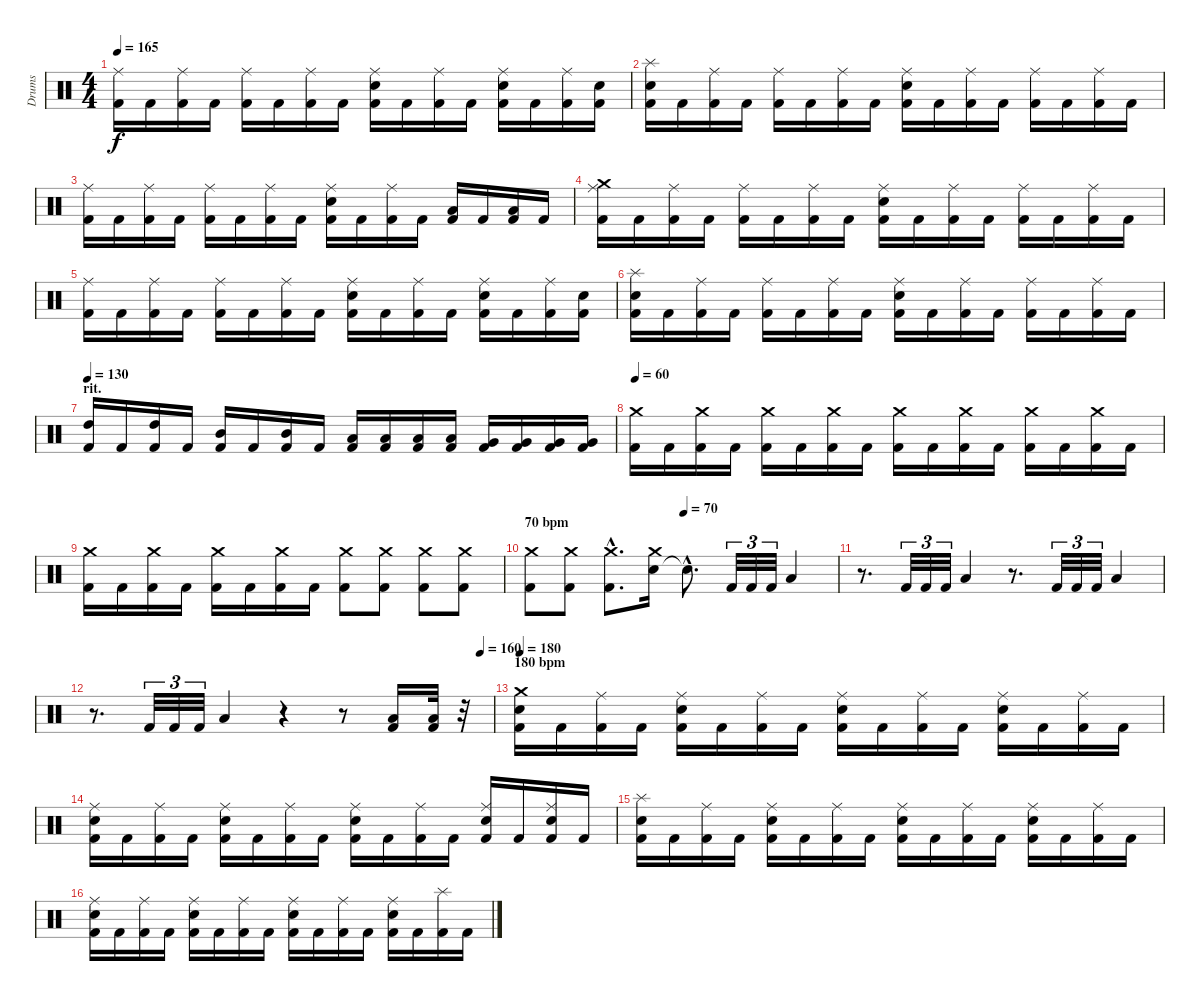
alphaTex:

\track ("Drums" "Drums") {instrument percussion}
\staff {score}
\articulation defaults
\ts (4 4)
\tempo 165
\clef neutral
\ks c
("Kick (hit) 2" "Ride (middle)").16{dy f} "Kick (hit) 2".16 ("Kick (hit) 2" "Ride (middle)").16 "Kick (hit) 2".16 ("Kick (hit) 2" "Ride (middle)").16 "Kick (hit) 2".16 ("Kick (hit) 2" "Ride (middle)").16 "Kick (hit) 2".16 ("Kick (hit) 2" "Electric Snare (hit)" "Ride (middle)").16 "Kick (hit) 2".16 ("Kick (hit) 2" "Ride (middle)").16 "Kick (hit) 2".16 ("Kick (hit) 2" "Electric Snare (hit)" "Ride (middle)").16 "Kick (hit) 2".16 ("Kick (hit) 2" "Ride (middle)").16 ("Kick (hit) 2" "Electric Snare (hit)").16 |
("Kick (hit) 2" "Electric Snare (hit)" "Splash (hit)").16 "Kick (hit) 2".16 ("Kick (hit) 2" "Ride (middle)").16 "Kick (hit) 2".16 ("Kick (hit) 2" "Ride (middle)").16 "Kick (hit) 2".16 ("Kick (hit) 2" "Ride (middle)").16 "Kick (hit) 2".16 ("Kick (hit) 2" "Electric Snare (hit)" "Ride (middle)").16 "Kick (hit) 2".16 ("Kick (hit) 2" "Ride (middle)").16 "Kick (hit) 2".16 ("Kick (hit) 2" "Ride (middle)").16 "Kick (hit) 2".16 ("Kick (hit) 2" "Ride (middle)").16 "Kick (hit) 2".16 |
("Kick (hit) 2" "Ride (middle)").16 "Kick (hit) 2".16 ("Kick (hit) 2" "Ride (middle)").16 "Kick (hit) 2".16 ("Kick (hit) 2" "Ride (middle)").16 "Kick (hit) 2".16 ("Kick (hit) 2" "Ride (middle)").16 "Kick (hit) 2".16 ("Kick (hit) 2" "Electric Snare (hit)" "Ride (middle)").16 "Kick (hit) 2".16 ("Kick (hit) 2" "Ride (middle)").16 "Kick (hit) 2".16 ("Kick (hit) 2" "Low Tom (hit)").16 "Kick (hit) 2".16 ("Kick (hit) 2" "Low Tom (hit)").16 "Kick (hit) 2".16 |
("Kick (hit) 2" "Ride (middle)" "Crash medium (hit)").16 "Kick (hit) 2".16 ("Kick (hit) 2" "Ride (middle)").16 "Kick (hit) 2".16 ("Kick (hit) 2" "Ride (middle)").16 "Kick (hit) 2".16 ("Kick (hit) 2" "Ride (middle)").16 "Kick (hit) 2".16 ("Kick (hit) 2" "Electric Snare (hit)" "Ride (middle)").16 "Kick (hit) 2".16 ("Kick (hit) 2" "Ride (middle)").16 "Kick (hit) 2".16 ("Kick (hit) 2" "Ride (middle)").16 "Kick (hit) 2".16 ("Kick (hit) 2" "Ride (middle)").16 "Kick (hit) 2".16 |
("Kick (hit) 2" "Ride (middle)").16 "Kick (hit) 2".16 ("Kick (hit) 2" "Ride (middle)").16 "Kick (hit) 2".16 ("Kick (hit) 2" "Ride (middle)").16 "Kick (hit) 2".16 ("Kick (hit) 2" "Ride (middle)").16 "Kick (hit) 2".16 ("Kick (hit) 2" "Electric Snare (hit)" "Ride (middle)").16 "Kick (hit) 2".16 ("Kick (hit) 2" "Ride (middle)").16 "Kick (hit) 2".16 ("Kick (hit) 2" "Electric Snare (hit)" "Ride (middle)").16 "Kick (hit) 2".16 ("Kick (hit) 2" "Ride (middle)").16 ("Kick (hit) 2" "Electric Snare (hit)").16 |
("Kick (hit) 2" "Electric Snare (hit)" "Splash (hit)").16 "Kick (hit) 2".16 ("Kick (hit) 2" "Ride (middle)").16 "Kick (hit) 2".16 ("Kick (hit) 2" "Ride (middle)").16 "Kick (hit) 2".16 ("Kick (hit) 2" "Ride (middle)").16 "Kick (hit) 2".16 ("Kick (hit) 2" "Electric Snare (hit)" "Ride (middle)").16 "Kick (hit) 2".16 ("Kick (hit) 2" "Ride (middle)").16 "Kick (hit) 2".16 ("Kick (hit) 2" "Ride (middle)").16 "Kick (hit) 2".16 ("Kick (hit) 2" "Ride (middle)").16 "Kick (hit) 2".16 |
\section ("" "rit.")
\tempo 130
("Kick (hit) 2" "High Tom (hit)").16 "Kick (hit) 2".16 ("Kick (hit) 2" "High Tom (hit)").16 "Kick (hit) 2".16 ("Kick (hit) 2" "Mid Tom (hit)").16 "Kick (hit) 2".16 ("Kick (hit) 2" "Mid Tom (hit)").16 "Kick (hit) 2".16 ("Kick (hit) 2" "Low Tom (hit)").16 ("Kick (hit) 2" "Low Tom (hit)").16 ("Kick (hit) 2" "Low Tom (hit)").16 ("Kick (hit) 2" "Low Tom (hit)").16 ("Kick (hit) 2" "Very Low Tom (hit)").16 ("Kick (hit) 2" "Very Low Tom (hit)").16 ("Kick (hit) 2" "Very Low Tom (hit)").16 ("Kick (hit) 2" "Very Low Tom (hit)").16 |
\tempo 60
("Kick (hit) 2" "Crash medium (hit)").16 "Kick (hit) 2".16 ("Kick (hit) 2" "Crash medium (hit)").16 "Kick (hit) 2".16 ("Kick (hit) 2" "Crash medium (hit)").16 "Kick (hit) 2".16 ("Kick (hit) 2" "Crash medium (hit)").16 "Kick (hit) 2".16 ("Kick (hit) 2" "Crash medium (hit)").16 "Kick (hit) 2".16 ("Kick (hit) 2" "Crash medium (hit)").16 "Kick (hit) 2".16 ("Kick (hit) 2" "Crash medium (hit)").16 "Kick (hit) 2".16 ("Kick (hit) 2" "Crash medium (hit)").16 "Kick (hit) 2".16 |
("Kick (hit) 2" "Crash medium (hit)").16 "Kick (hit) 2".16 ("Kick (hit) 2" "Crash medium (hit)").16 "Kick (hit) 2".16 ("Kick (hit) 2" "Crash medium (hit)").16 "Kick (hit) 2".16 ("Kick (hit) 2" "Crash medium (hit)").16 "Kick (hit) 2".16 ("Kick (hit) 2" "Crash medium (hit)").8 ("Kick (hit) 2" "Crash medium (hit)").8 ("Kick (hit) 2" "Crash medium (hit)").8 ("Kick (hit) 2" "Crash medium (hit)").8 |
\section ("" "70 bpm")
\tempo (70 0.5)
("Kick (hit) 2" "Crash medium (hit)").8 ("Kick (hit) 2" "Crash medium (hit)").8 ("Kick (hit) 2"{hac} "Crash medium (hit)"{hac}).8{d} ("Electric Snare (hit)" "Crash medium (hit)").16 "Snare (hit)"{hac t}.8{d} "Kick (hit) 2".32{tu (3 2)} "Kick (hit) 2".32{tu (3 2)} "Kick (hit) 2".32{tu (3 2)} "Low Tom (hit)".4 |
r.8{d} "Kick (hit) 2".32{tu (3 2)} "Kick (hit) 2".32{tu (3 2)} "Kick (hit) 2".32{tu (3 2)} "Low Tom (hit)".4 r.8{d} "Kick (hit) 2".32{tu (3 2)} "Kick (hit) 2".32{tu (3 2)} "Kick (hit) 2".32{tu (3 2)} "Low Tom (hit)".4 |
\tempo (160 0.96875)
r.8{d} "Kick (hit) 2".32{tu (3 2)} "Kick (hit) 2".32{tu (3 2)} "Kick (hit) 2".32{tu (3 2)} "Low Tom (hit)".4 r.4 r.8 ("Kick (hit) 2" "Low Tom (hit)").16 ("Kick (hit) 2" "Low Tom (hit)").32 r.32 |
\section ("" "180 bpm")
\tempo 180
("Kick (hit) 2" "Electric Snare (hit)" "Crash medium (hit)").16 "Kick (hit) 2".16 ("Kick (hit) 2" "Ride (middle)").16 "Kick (hit) 2".16 ("Kick (hit) 2" "Electric Snare (hit)" "Ride (middle)").16 "Kick (hit) 2".16 ("Kick (hit) 2" "Ride (middle)").16 "Kick (hit) 2".16 ("Kick (hit) 2" "Electric Snare (hit)" "Ride (middle)").16 "Kick (hit) 2".16 ("Kick (hit) 2" "Ride (middle)").16 "Kick (hit) 2".16 ("Kick (hit) 2" "Electric Snare (hit)" "Ride (middle)").16 "Kick (hit) 2".16 ("Kick (hit) 2" "Ride (middle)").16 "Kick (hit) 2".16 |
("Kick (hit) 2" "Electric Snare (hit)" "Ride (middle)").16 "Kick (hit) 2".16 ("Kick (hit) 2" "Ride (middle)").16 "Kick (hit) 2".16 ("Kick (hit) 2" "Electric Snare (hit)" "Ride (middle)").16 "Kick (hit) 2".16 ("Kick (hit) 2" "Ride (middle)").16 "Kick (hit) 2".16 ("Kick (hit) 2" "Electric Snare (hit)" "Ride (middle)").16 "Kick (hit) 2".16 ("Kick (hit) 2" "Ride (middle)").16 "Kick (hit) 2".16 ("Kick (hit) 2" "Electric Snare (hit)" "Ride (middle)").16 "Kick (hit) 2".16 ("Kick (hit) 2" "Electric Snare (hit)" "Ride (middle)").16 "Kick (hit) 2".16 |
("Kick (hit) 2" "Electric Snare (hit)" "Splash (hit)").16 "Kick (hit) 2".16 ("Kick (hit) 2" "Ride (middle)").16 "Kick (hit) 2".16 ("Kick (hit) 2" "Electric Snare (hit)" "Ride (middle)").16 "Kick (hit) 2".16 ("Kick (hit) 2" "Ride (middle)").16 "Kick (hit) 2".16 ("Kick (hit) 2" "Electric Snare (hit)" "Ride (middle)").16 "Kick (hit) 2".16 ("Kick (hit) 2" "Ride (middle)").16 "Kick (hit) 2".16 ("Kick (hit) 2" "Electric Snare (hit)" "Ride (middle)").16 "Kick (hit) 2".16 ("Kick (hit) 2" "Ride (middle)").16 "Kick (hit) 2".16 |
("Kick (hit) 2" "Electric Snare (hit)" "Ride (middle)").16 "Kick (hit) 2".16 ("Kick (hit) 2" "Ride (middle)").16 "Kick (hit) 2".16 ("Kick (hit) 2" "Electric Snare (hit)" "Ride (middle)").16 "Kick (hit) 2".16 ("Kick (hit) 2" "Ride (middle)").16 "Kick (hit) 2".16 ("Kick (hit) 2" "Electric Snare (hit)" "Ride (middle)").16 "Kick (hit) 2".16 ("Kick (hit) 2" "Ride (middle)").16 "Kick (hit) 2".16 ("Kick (hit) 2" "Electric Snare (hit)" "Ride (middle)").16 "Kick (hit) 2".16 ("Kick (hit) 2" "Splash (hit)").16 "Kick (hit) 2".16
